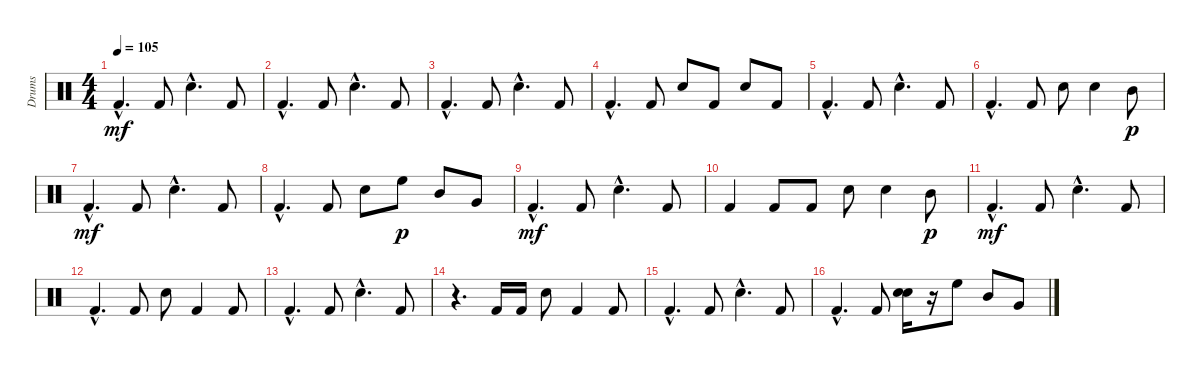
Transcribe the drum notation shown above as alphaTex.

\track ("Drums" "Drums") {instrument percussion}
\staff {score}
\articulation defaults
\ts (4 4)
\tempo 105
\clef neutral
\ks c "Kick (hit) 2"{hac}.4{d dy mf} "Kick (hit) 2".8 "Snare (hit) 2"{hac}.4{d} "Kick (hit) 2".8
|
"Kick (hit) 2"{hac}.4{d} "Kick (hit) 2".8 "Snare (hit) 2"{hac}.4{d} "Kick (hit) 2".8 |
"Kick (hit) 2"{hac}.4{d} "Kick (hit) 2".8 "Snare (hit) 2"{hac}.4{d} "Kick (hit) 2".8 |
"Kick (hit) 2"{hac}.4{d} "Kick (hit) 2".8 "Snare (hit) 2".8 "Kick (hit) 2".8 "Snare (hit) 2".8 "Kick (hit) 2".8 |
"Kick (hit) 2"{hac}.4{d} "Kick (hit) 2".8 "Snare (hit) 2"{hac}.4{d} "Kick (hit) 2".8 |
"Kick (hit) 2"{hac}.4{d} "Kick (hit) 2".8 "Snare (hit) 2".8 "Snare (hit) 2".4 "Mid Tom (hit)".8{dy p} |
"Kick (hit) 2"{hac}.4{d dy mf} "Kick (hit) 2".8 "Snare (hit) 2"{hac}.4{d} "Kick (hit) 2".8 |
"Kick (hit) 2"{hac}.4{d} "Kick (hit) 2".8 "Snare (hit) 2".8 "High Floor Tom (hit)".8{dy p} "Mid Tom (hit)".8 "Very Low Tom (hit)".8 |
"Kick (hit) 2"{hac}.4{d dy mf} "Kick (hit) 2".8 "Snare (hit) 2"{hac}.4{d} "Kick (hit) 2".8 |
"Kick (hit) 2".4 "Kick (hit) 2".8 "Kick (hit) 2".8 "Snare (hit) 2".8 "Snare (hit) 2".4 "Mid Tom (hit)".8{dy p} |
"Kick (hit) 2"{hac}.4{d dy mf} "Kick (hit) 2".8 "Snare (hit) 2"{hac}.4{d} "Kick (hit) 2".8 |
"Kick (hit) 2"{hac}.4{d} "Kick (hit) 2".8 "Snare (hit) 2".8 "Kick (hit) 2".4 "Kick (hit) 2".8 |
"Kick (hit) 2"{hac}.4{d} "Kick (hit) 2".8 "Snare (hit) 2"{hac}.4{d} "Kick (hit) 2".8 |
r.4{d} "Kick (hit) 2".16 "Kick (hit) 2".16 "Snare (hit) 2".8 "Kick (hit) 2".4 "Kick (hit) 2".8 |
"Kick (hit) 2"{hac}.4{d} "Kick (hit) 2".8 "Snare (hit) 2"{hac}.4{d} "Kick (hit) 2".8 |
"Kick (hit) 2"{hac}.4{d} "Kick (hit) 2".8 ("Snare (hit) 2" "Snare (hit) 2").16 r.16 "High Floor Tom (hit)".8 "Mid Tom (hit)".8 "Very Low Tom (hit)".8
